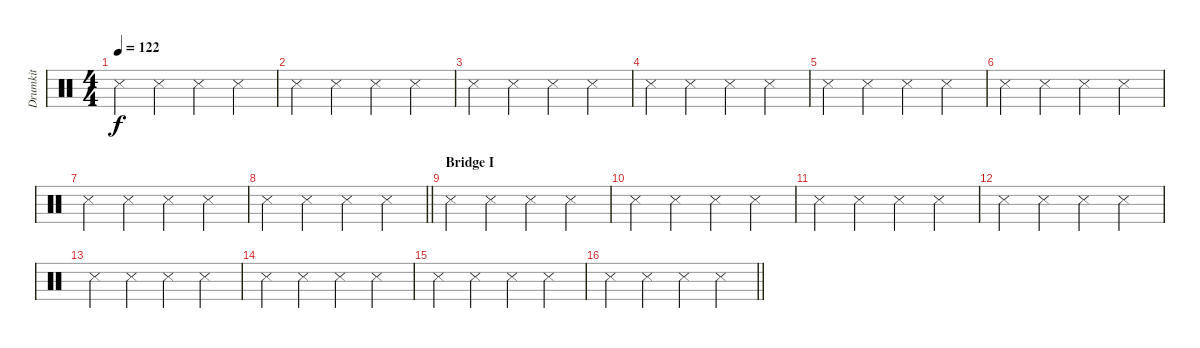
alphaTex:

\track ("Drumkit" "Drumkit") {mute instrument percussion}
\staff {score}
\articulation defaults
\ts (4 4)
\tempo 122
\clef neutral
\ks c "Snare (side stick) 3".4{dy f} "Snare (side stick) 3".4 "Snare (side stick) 3".4 "Snare (side stick) 3".4
|
"Snare (side stick) 3".4 "Snare (side stick) 3".4 "Snare (side stick) 3".4 "Snare (side stick) 3".4 |
"Snare (side stick) 3".4 "Snare (side stick) 3".4 "Snare (side stick) 3".4 "Snare (side stick) 3".4 |
"Snare (side stick) 3".4 "Snare (side stick) 3".4 "Snare (side stick) 3".4 "Snare (side stick) 3".4 |
"Snare (side stick) 3".4 "Snare (side stick) 3".4 "Snare (side stick) 3".4 "Snare (side stick) 3".4 |
"Snare (side stick) 3".4 "Snare (side stick) 3".4 "Snare (side stick) 3".4 "Snare (side stick) 3".4 |
"Snare (side stick) 3".4 "Snare (side stick) 3".4 "Snare (side stick) 3".4 "Snare (side stick) 3".4 |
\barLineRight lightlight "Snare (side stick) 3".4 "Snare (side stick) 3".4 "Snare (side stick) 3".4 "Snare (side stick) 3".4
|
\section ("" "Bridge I")
"Snare (side stick) 3".4 "Snare (side stick) 3".4 "Snare (side stick) 3".4 "Snare (side stick) 3".4 |
"Snare (side stick) 3".4 "Snare (side stick) 3".4 "Snare (side stick) 3".4 "Snare (side stick) 3".4 |
"Snare (side stick) 3".4 "Snare (side stick) 3".4 "Snare (side stick) 3".4 "Snare (side stick) 3".4 |
"Snare (side stick) 3".4 "Snare (side stick) 3".4 "Snare (side stick) 3".4 "Snare (side stick) 3".4 |
"Snare (side stick) 3".4 "Snare (side stick) 3".4 "Snare (side stick) 3".4 "Snare (side stick) 3".4 |
"Snare (side stick) 3".4 "Snare (side stick) 3".4 "Snare (side stick) 3".4 "Snare (side stick) 3".4 |
"Snare (side stick) 3".4 "Snare (side stick) 3".4 "Snare (side stick) 3".4 "Snare (side stick) 3".4 |
\barLineRight lightlight "Snare (side stick) 3".4 "Snare (side stick) 3".4 "Snare (side stick) 3".4 "Snare (side stick) 3".4
